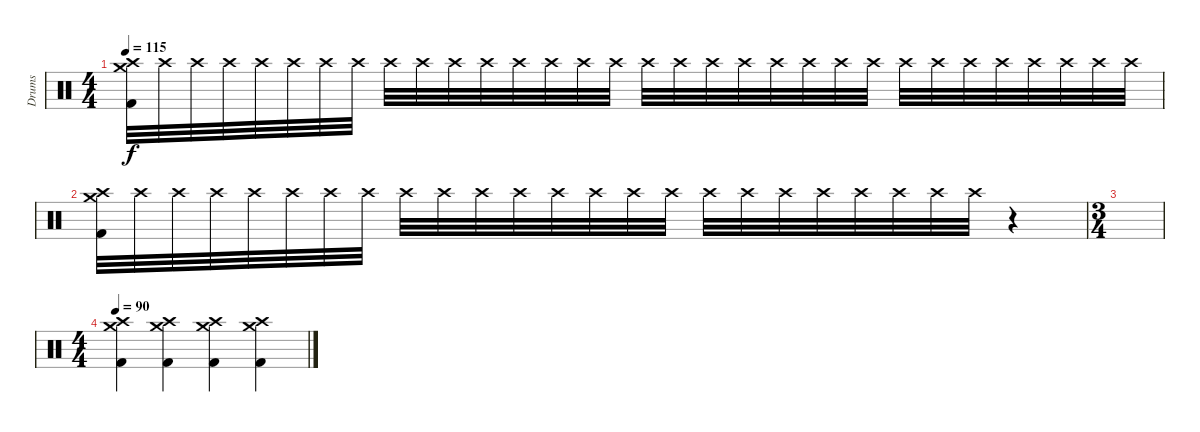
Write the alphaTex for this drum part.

\track ("Drums" "Drums") {instrument percussion}
\staff {score}
\articulation defaults
\ts (4 4)
\tempo 115
\clef neutral
\ks c
("Crash high (hit)" "Crash medium (hit)" "Kick (hit) 2").32{dy f} "Crash high (hit)".32 "Crash high (hit)".32 "Crash high (hit)".32 "Crash high (hit)".32 "Crash high (hit)".32 "Crash high (hit)".32 "Crash high (hit)".32 "Crash high (hit)".32 "Crash high (hit)".32 "Crash high (hit)".32 "Crash high (hit)".32 "Crash high (hit)".32 "Crash high (hit)".32 "Crash high (hit)".32 "Crash high (hit)".32 "Crash high (hit)".32 "Crash high (hit)".32 "Crash high (hit)".32 "Crash high (hit)".32 "Crash high (hit)".32 "Crash high (hit)".32 "Crash high (hit)".32 "Crash high (hit)".32 "Crash high (hit)".32 "Crash high (hit)".32 "Crash high (hit)".32 "Crash high (hit)".32 "Crash high (hit)".32 "Crash high (hit)".32 "Crash high (hit)".32 "Crash high (hit)".32 |
("Crash high (hit)" "Crash medium (hit)" "Kick (hit) 2").32 "Crash high (hit)".32 "Crash high (hit)".32 "Crash high (hit)".32 "Crash high (hit)".32 "Crash high (hit)".32 "Crash high (hit)".32 "Crash high (hit)".32 "Crash high (hit)".32 "Crash high (hit)".32 "Crash high (hit)".32 "Crash high (hit)".32 "Crash high (hit)".32 "Crash high (hit)".32 "Crash high (hit)".32 "Crash high (hit)".32 "Crash high (hit)".32 "Crash high (hit)".32 "Crash high (hit)".32 "Crash high (hit)".32 "Crash high (hit)".32 "Crash high (hit)".32 "Crash high (hit)".32 "Crash high (hit)".32 r.4 |
\ts (3 4)
|
\ts (4 4)
\tempo 100
\tempo 90
("Crash medium (hit)" "Crash high (hit)" "Kick (hit) 2").4 ("Crash medium (hit)" "Crash high (hit)" "Kick (hit) 2").4 ("Crash medium (hit)" "Crash high (hit)" "Kick (hit) 2").4 ("Crash medium (hit)" "Crash high (hit)" "Kick (hit) 2").4
